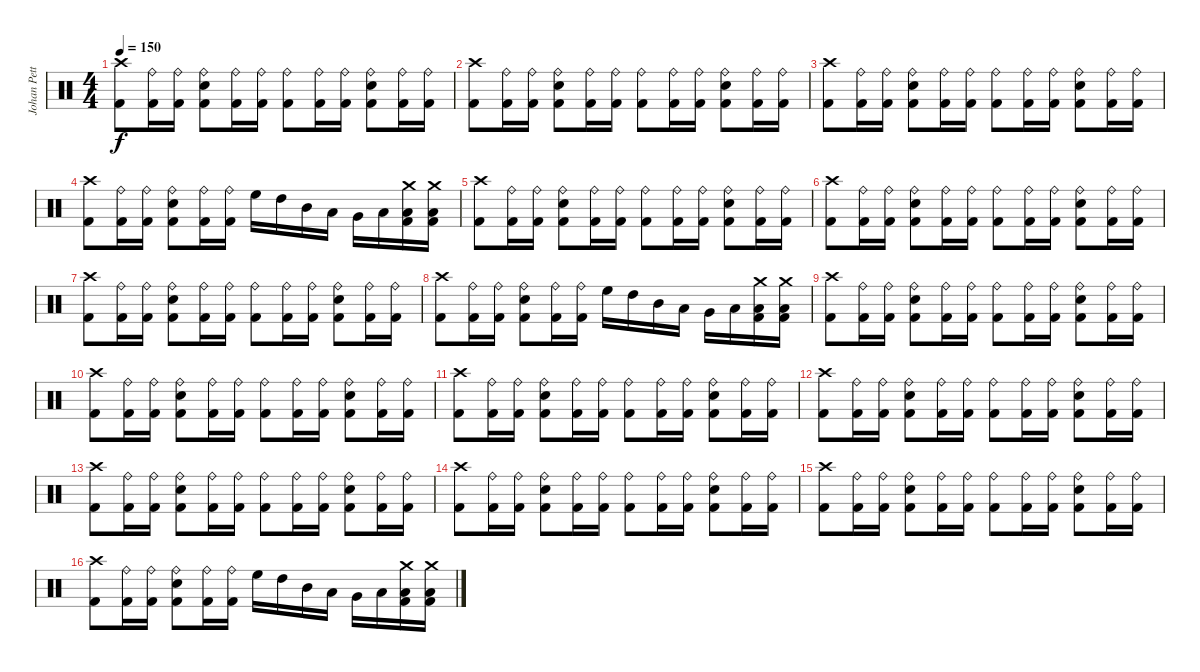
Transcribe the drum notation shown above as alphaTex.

\track ("Johan Petterson" "Johan Pett") {instrument percussion}
\staff {score}
\articulation defaults
\ts (4 4)
\tempo 150
\clef neutral
\ks c
("Crash high (hit)" "Kick (hit) 2").8{dy f} ("Ride (bell)" "Kick (hit) 2").16 ("Ride (bell)" "Kick (hit) 2").16 ("Ride (bell)" "Snare (hit) 2" "Kick (hit) 2").8 ("Ride (bell)" "Kick (hit) 2").16 ("Ride (bell)" "Kick (hit) 2").16 ("Ride (bell)" "Kick (hit) 2").8 ("Ride (bell)" "Kick (hit) 2").16 ("Ride (bell)" "Kick (hit) 2").16 ("Ride (bell)" "Snare (hit) 2" "Kick (hit) 2").8 ("Ride (bell)" "Kick (hit) 2").16 ("Ride (bell)" "Kick (hit) 2").16 |
("Crash high (hit)" "Kick (hit) 2").8 ("Ride (bell)" "Kick (hit) 2").16 ("Ride (bell)" "Kick (hit) 2").16 ("Ride (bell)" "Snare (hit) 2" "Kick (hit) 2").8 ("Ride (bell)" "Kick (hit) 2").16 ("Ride (bell)" "Kick (hit) 2").16 ("Ride (bell)" "Kick (hit) 2").8 ("Ride (bell)" "Kick (hit) 2").16 ("Ride (bell)" "Kick (hit) 2").16 ("Ride (bell)" "Snare (hit) 2" "Kick (hit) 2").8 ("Ride (bell)" "Kick (hit) 2").16 ("Ride (bell)" "Kick (hit) 2").16 |
("Crash high (hit)" "Kick (hit) 2").8 ("Ride (bell)" "Kick (hit) 2").16 ("Ride (bell)" "Kick (hit) 2").16 ("Ride (bell)" "Snare (hit) 2" "Kick (hit) 2").8 ("Ride (bell)" "Kick (hit) 2").16 ("Ride (bell)" "Kick (hit) 2").16 ("Ride (bell)" "Kick (hit) 2").8 ("Ride (bell)" "Kick (hit) 2").16 ("Ride (bell)" "Kick (hit) 2").16 ("Ride (bell)" "Snare (hit) 2" "Kick (hit) 2").8 ("Ride (bell)" "Kick (hit) 2").16 ("Ride (bell)" "Kick (hit) 2").16 |
("Crash high (hit)" "Kick (hit) 2").8 ("Ride (bell)" "Kick (hit) 2").16 ("Ride (bell)" "Kick (hit) 2").16 ("Ride (bell)" "Snare (hit) 2" "Kick (hit) 2").8 ("Ride (bell)" "Kick (hit) 2").16 ("Ride (bell)" "Kick (hit) 2").16 "High Floor Tom (hit)".16 "High Tom (hit)".16 "Mid Tom (hit)".16 "Low Tom (hit)".16 "Very Low Tom (hit)".16 "Low Floor Tom (hit)".16 ("Crash medium (hit)" "Low Floor Tom (hit)" "Kick (hit) 2").16 ("Crash medium (hit)" "Low Floor Tom (hit)" "Kick (hit) 2").16 |
("Crash high (hit)" "Kick (hit) 2").8 ("Ride (bell)" "Kick (hit) 2").16 ("Ride (bell)" "Kick (hit) 2").16 ("Ride (bell)" "Snare (hit) 2" "Kick (hit) 2").8 ("Ride (bell)" "Kick (hit) 2").16 ("Ride (bell)" "Kick (hit) 2").16 ("Ride (bell)" "Kick (hit) 2").8 ("Ride (bell)" "Kick (hit) 2").16 ("Ride (bell)" "Kick (hit) 2").16 ("Ride (bell)" "Snare (hit) 2" "Kick (hit) 2").8 ("Ride (bell)" "Kick (hit) 2").16 ("Ride (bell)" "Kick (hit) 2").16 |
("Crash high (hit)" "Kick (hit) 2").8 ("Ride (bell)" "Kick (hit) 2").16 ("Ride (bell)" "Kick (hit) 2").16 ("Ride (bell)" "Snare (hit) 2" "Kick (hit) 2").8 ("Ride (bell)" "Kick (hit) 2").16 ("Ride (bell)" "Kick (hit) 2").16 ("Ride (bell)" "Kick (hit) 2").8 ("Ride (bell)" "Kick (hit) 2").16 ("Ride (bell)" "Kick (hit) 2").16 ("Ride (bell)" "Snare (hit) 2" "Kick (hit) 2").8 ("Ride (bell)" "Kick (hit) 2").16 ("Ride (bell)" "Kick (hit) 2").16 |
("Crash high (hit)" "Kick (hit) 2").8 ("Ride (bell)" "Kick (hit) 2").16 ("Ride (bell)" "Kick (hit) 2").16 ("Ride (bell)" "Snare (hit) 2" "Kick (hit) 2").8 ("Ride (bell)" "Kick (hit) 2").16 ("Ride (bell)" "Kick (hit) 2").16 ("Ride (bell)" "Kick (hit) 2").8 ("Ride (bell)" "Kick (hit) 2").16 ("Ride (bell)" "Kick (hit) 2").16 ("Ride (bell)" "Snare (hit) 2" "Kick (hit) 2").8 ("Ride (bell)" "Kick (hit) 2").16 ("Ride (bell)" "Kick (hit) 2").16 |
("Crash high (hit)" "Kick (hit) 2").8 ("Ride (bell)" "Kick (hit) 2").16 ("Ride (bell)" "Kick (hit) 2").16 ("Ride (bell)" "Snare (hit) 2" "Kick (hit) 2").8 ("Ride (bell)" "Kick (hit) 2").16 ("Ride (bell)" "Kick (hit) 2").16 "High Floor Tom (hit)".16 "High Tom (hit)".16 "Mid Tom (hit)".16 "Low Tom (hit)".16 "Very Low Tom (hit)".16 "Low Floor Tom (hit)".16 ("Crash medium (hit)" "Low Floor Tom (hit)" "Kick (hit) 2").16 ("Crash medium (hit)" "Low Floor Tom (hit)" "Kick (hit) 2").16 |
("Crash high (hit)" "Kick (hit) 2").8 ("Ride (bell)" "Kick (hit) 2").16 ("Ride (bell)" "Kick (hit) 2").16 ("Ride (bell)" "Snare (hit) 2" "Kick (hit) 2").8 ("Ride (bell)" "Kick (hit) 2").16 ("Ride (bell)" "Kick (hit) 2").16 ("Ride (bell)" "Kick (hit) 2").8 ("Ride (bell)" "Kick (hit) 2").16 ("Ride (bell)" "Kick (hit) 2").16 ("Ride (bell)" "Snare (hit) 2" "Kick (hit) 2").8 ("Ride (bell)" "Kick (hit) 2").16 ("Ride (bell)" "Kick (hit) 2").16 |
("Crash high (hit)" "Kick (hit) 2").8 ("Ride (bell)" "Kick (hit) 2").16 ("Ride (bell)" "Kick (hit) 2").16 ("Ride (bell)" "Snare (hit) 2" "Kick (hit) 2").8 ("Ride (bell)" "Kick (hit) 2").16 ("Ride (bell)" "Kick (hit) 2").16 ("Ride (bell)" "Kick (hit) 2").8 ("Ride (bell)" "Kick (hit) 2").16 ("Ride (bell)" "Kick (hit) 2").16 ("Ride (bell)" "Snare (hit) 2" "Kick (hit) 2").8 ("Ride (bell)" "Kick (hit) 2").16 ("Ride (bell)" "Kick (hit) 2").16 |
("Crash high (hit)" "Kick (hit) 2").8 ("Ride (bell)" "Kick (hit) 2").16 ("Ride (bell)" "Kick (hit) 2").16 ("Ride (bell)" "Snare (hit) 2" "Kick (hit) 2").8 ("Ride (bell)" "Kick (hit) 2").16 ("Ride (bell)" "Kick (hit) 2").16 ("Ride (bell)" "Kick (hit) 2").8 ("Ride (bell)" "Kick (hit) 2").16 ("Ride (bell)" "Kick (hit) 2").16 ("Ride (bell)" "Snare (hit) 2" "Kick (hit) 2").8 ("Ride (bell)" "Kick (hit) 2").16 ("Ride (bell)" "Kick (hit) 2").16 |
("Crash high (hit)" "Kick (hit) 2").8 ("Ride (bell)" "Kick (hit) 2").16 ("Ride (bell)" "Kick (hit) 2").16 ("Ride (bell)" "Snare (hit) 2" "Kick (hit) 2").8 ("Ride (bell)" "Kick (hit) 2").16 ("Ride (bell)" "Kick (hit) 2").16 ("Ride (bell)" "Kick (hit) 2").8 ("Ride (bell)" "Kick (hit) 2").16 ("Ride (bell)" "Kick (hit) 2").16 ("Ride (bell)" "Snare (hit) 2" "Kick (hit) 2").8 ("Ride (bell)" "Kick (hit) 2").16 ("Ride (bell)" "Kick (hit) 2").16 |
("Crash high (hit)" "Kick (hit) 2").8 ("Ride (bell)" "Kick (hit) 2").16 ("Ride (bell)" "Kick (hit) 2").16 ("Ride (bell)" "Snare (hit) 2" "Kick (hit) 2").8 ("Ride (bell)" "Kick (hit) 2").16 ("Ride (bell)" "Kick (hit) 2").16 ("Ride (bell)" "Kick (hit) 2").8 ("Ride (bell)" "Kick (hit) 2").16 ("Ride (bell)" "Kick (hit) 2").16 ("Ride (bell)" "Snare (hit) 2" "Kick (hit) 2").8 ("Ride (bell)" "Kick (hit) 2").16 ("Ride (bell)" "Kick (hit) 2").16 |
("Crash high (hit)" "Kick (hit) 2").8 ("Ride (bell)" "Kick (hit) 2").16 ("Ride (bell)" "Kick (hit) 2").16 ("Ride (bell)" "Snare (hit) 2" "Kick (hit) 2").8 ("Ride (bell)" "Kick (hit) 2").16 ("Ride (bell)" "Kick (hit) 2").16 ("Ride (bell)" "Kick (hit) 2").8 ("Ride (bell)" "Kick (hit) 2").16 ("Ride (bell)" "Kick (hit) 2").16 ("Ride (bell)" "Snare (hit) 2" "Kick (hit) 2").8 ("Ride (bell)" "Kick (hit) 2").16 ("Ride (bell)" "Kick (hit) 2").16 |
("Crash high (hit)" "Kick (hit) 2").8 ("Ride (bell)" "Kick (hit) 2").16 ("Ride (bell)" "Kick (hit) 2").16 ("Ride (bell)" "Snare (hit) 2" "Kick (hit) 2").8 ("Ride (bell)" "Kick (hit) 2").16 ("Ride (bell)" "Kick (hit) 2").16 ("Ride (bell)" "Kick (hit) 2").8 ("Ride (bell)" "Kick (hit) 2").16 ("Ride (bell)" "Kick (hit) 2").16 ("Ride (bell)" "Snare (hit) 2" "Kick (hit) 2").8 ("Ride (bell)" "Kick (hit) 2").16 ("Ride (bell)" "Kick (hit) 2").16 |
("Crash high (hit)" "Kick (hit) 2").8 ("Ride (bell)" "Kick (hit) 2").16 ("Ride (bell)" "Kick (hit) 2").16 ("Ride (bell)" "Snare (hit) 2" "Kick (hit) 2").8 ("Ride (bell)" "Kick (hit) 2").16 ("Ride (bell)" "Kick (hit) 2").16 "High Floor Tom (hit)".16 "High Tom (hit)".16 "Mid Tom (hit)".16 "Low Tom (hit)".16 "Very Low Tom (hit)".16 "Low Floor Tom (hit)".16 ("Crash medium (hit)" "Low Floor Tom (hit)" "Kick (hit) 2").16 ("Crash medium (hit)" "Low Floor Tom (hit)" "Kick (hit) 2").16
